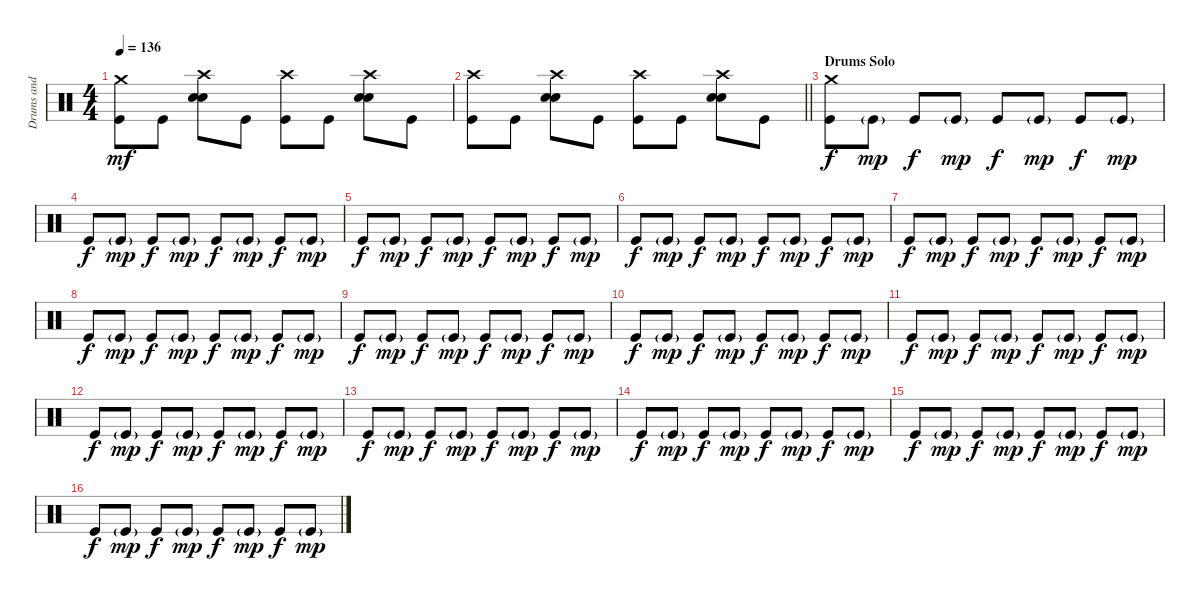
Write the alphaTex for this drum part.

\track ("Drums and Percussions" "Drums and ") {instrument percussion}
\staff {score}
\articulation defaults
\ts (4 4)
\tempo 136
\clef neutral
\ks c
("Crash medium (hit)" "Kick (hit)").8{dy mf} "Kick (hit)".8 ("Crash high (hit)" "Electric Snare (hit)" "Electric Snare (hit)").8 "Kick (hit)".8 ("Crash high (hit)" "Kick (hit)").8 "Kick (hit)".8 ("Crash high (hit)" "Electric Snare (hit)" "Electric Snare (hit)").8 "Kick (hit)".8 |
\barLineRight lightlight
("Crash high (hit)" "Kick (hit)").8 "Kick (hit)".8 ("Crash high (hit)" "Electric Snare (hit)" "Electric Snare (hit)").8 "Kick (hit)".8 ("Crash high (hit)" "Kick (hit)").8 "Kick (hit)".8 ("Crash high (hit)" "Electric Snare (hit)" "Electric Snare (hit)").8 "Kick (hit)".8 |
\section ("" "Drums Solo")
("Crash medium (hit)" "Kick (hit)").8{dy f} "Kick (hit)"{g}.8{dy mp} "Kick (hit)".8{dy f} "Kick (hit)"{g}.8{dy mp} "Kick (hit)".8{dy f} "Kick (hit)"{g}.8{dy mp} "Kick (hit)".8{dy f} "Kick (hit)"{g}.8{dy mp} |
"Kick (hit)".8{dy f} "Kick (hit)"{g}.8{dy mp} "Kick (hit)".8{dy f} "Kick (hit)"{g}.8{dy mp} "Kick (hit)".8{dy f} "Kick (hit)"{g}.8{dy mp} "Kick (hit)".8{dy f} "Kick (hit)"{g}.8{dy mp} |
"Kick (hit)".8{dy f} "Kick (hit)"{g}.8{dy mp} "Kick (hit)".8{dy f} "Kick (hit)"{g}.8{dy mp} "Kick (hit)".8{dy f} "Kick (hit)"{g}.8{dy mp} "Kick (hit)".8{dy f} "Kick (hit)"{g}.8{dy mp} |
"Kick (hit)".8{dy f} "Kick (hit)"{g}.8{dy mp} "Kick (hit)".8{dy f} "Kick (hit)"{g}.8{dy mp} "Kick (hit)".8{dy f} "Kick (hit)"{g}.8{dy mp} "Kick (hit)".8{dy f} "Kick (hit)"{g}.8{dy mp} |
"Kick (hit)".8{dy f} "Kick (hit)"{g}.8{dy mp} "Kick (hit)".8{dy f} "Kick (hit)"{g}.8{dy mp} "Kick (hit)".8{dy f} "Kick (hit)"{g}.8{dy mp} "Kick (hit)".8{dy f} "Kick (hit)"{g}.8{dy mp} |
"Kick (hit)".8{dy f} "Kick (hit)"{g}.8{dy mp} "Kick (hit)".8{dy f} "Kick (hit)"{g}.8{dy mp} "Kick (hit)".8{dy f} "Kick (hit)"{g}.8{dy mp} "Kick (hit)".8{dy f} "Kick (hit)"{g}.8{dy mp} |
"Kick (hit)".8{dy f} "Kick (hit)"{g}.8{dy mp} "Kick (hit)".8{dy f} "Kick (hit)"{g}.8{dy mp} "Kick (hit)".8{dy f} "Kick (hit)"{g}.8{dy mp} "Kick (hit)".8{dy f} "Kick (hit)"{g}.8{dy mp} |
"Kick (hit)".8{dy f} "Kick (hit)"{g}.8{dy mp} "Kick (hit)".8{dy f} "Kick (hit)"{g}.8{dy mp} "Kick (hit)".8{dy f} "Kick (hit)"{g}.8{dy mp} "Kick (hit)".8{dy f} "Kick (hit)"{g}.8{dy mp} |
"Kick (hit)".8{dy f} "Kick (hit)"{g}.8{dy mp} "Kick (hit)".8{dy f} "Kick (hit)"{g}.8{dy mp} "Kick (hit)".8{dy f} "Kick (hit)"{g}.8{dy mp} "Kick (hit)".8{dy f} "Kick (hit)"{g}.8{dy mp} |
"Kick (hit)".8{dy f} "Kick (hit)"{g}.8{dy mp} "Kick (hit)".8{dy f} "Kick (hit)"{g}.8{dy mp} "Kick (hit)".8{dy f} "Kick (hit)"{g}.8{dy mp} "Kick (hit)".8{dy f} "Kick (hit)"{g}.8{dy mp} |
"Kick (hit)".8{dy f} "Kick (hit)"{g}.8{dy mp} "Kick (hit)".8{dy f} "Kick (hit)"{g}.8{dy mp} "Kick (hit)".8{dy f} "Kick (hit)"{g}.8{dy mp} "Kick (hit)".8{dy f} "Kick (hit)"{g}.8{dy mp} |
"Kick (hit)".8{dy f} "Kick (hit)"{g}.8{dy mp} "Kick (hit)".8{dy f} "Kick (hit)"{g}.8{dy mp} "Kick (hit)".8{dy f} "Kick (hit)"{g}.8{dy mp} "Kick (hit)".8{dy f} "Kick (hit)"{g}.8{dy mp} |
"Kick (hit)".8{dy f} "Kick (hit)"{g}.8{dy mp} "Kick (hit)".8{dy f} "Kick (hit)"{g}.8{dy mp} "Kick (hit)".8{dy f} "Kick (hit)"{g}.8{dy mp} "Kick (hit)".8{dy f} "Kick (hit)"{g}.8{dy mp} |
"Kick (hit)".8{dy f} "Kick (hit)"{g}.8{dy mp} "Kick (hit)".8{dy f} "Kick (hit)"{g}.8{dy mp} "Kick (hit)".8{dy f} "Kick (hit)"{g}.8{dy mp} "Kick (hit)".8{dy f} "Kick (hit)"{g}.8{dy mp}
